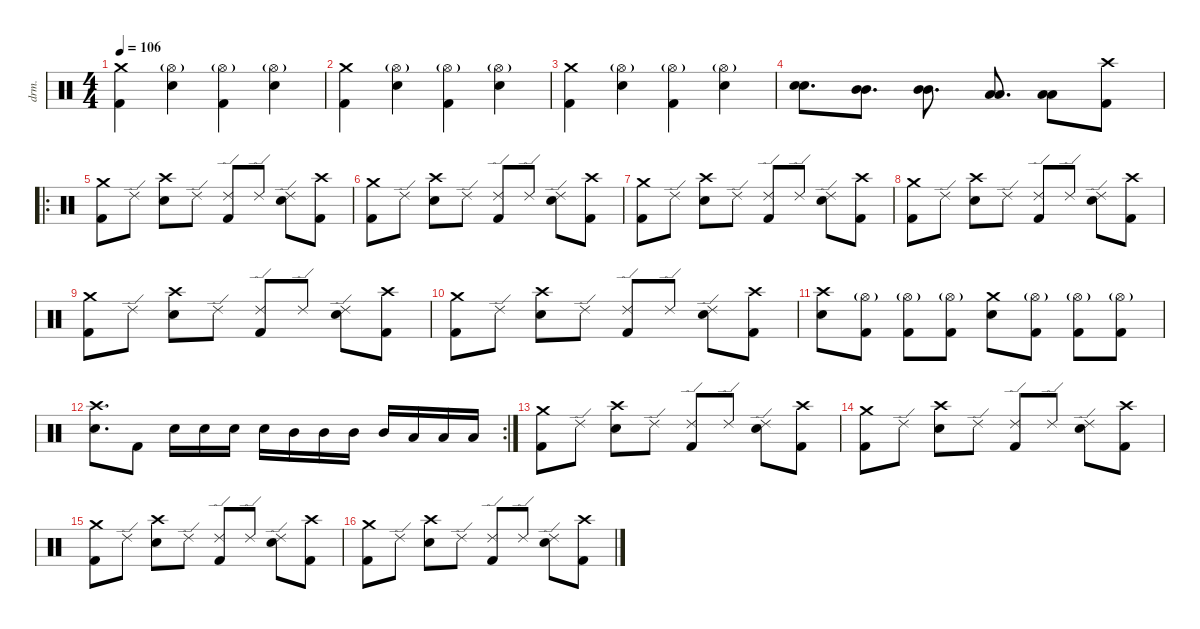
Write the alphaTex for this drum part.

\defaultSystemsLayout 4
\hideDynamics
\bracketExtendMode nobrackets
\track ("Lee Kerslake" "drm.") {solo instrument percussion}
\staff {score}
\articulation defaults
\ts (4 4)
\tempo 106
\clef neutral
\ks c
("Crash medium (hit)" "Kick (hit) 2").4{dy f} ("Hi-Hat (open)"{g} "Snare (hit) 2").4 ("Hi-Hat (open)"{g} "Kick (hit) 2").4 ("Hi-Hat (open)"{g} "Snare (hit) 2").4 |
("Crash medium (hit)" "Kick (hit) 2").4 ("Hi-Hat (open)"{g} "Snare (hit) 2").4 ("Hi-Hat (open)"{g} "Kick (hit) 2").4 ("Hi-Hat (open)"{g} "Snare (hit) 2").4 |
("Crash medium (hit)" "Kick (hit) 2").4 ("Hi-Hat (open)"{g} "Snare (hit) 2").4 ("Hi-Hat (open)"{g} "Kick (hit) 2").4 ("Hi-Hat (open)"{g} "Snare (hit) 2").4 |
("Snare (hit) 2" "Snare (hit) 2").8{d} ("Mid Tom (hit)" "Mid Tom (hit)").8{d} ("Mid Tom (hit)" "Mid Tom (hit)").8{d} ("Low Tom (hit)" "Low Tom (hit)").8{d} ("Low Tom (hit)" "Low Tom (hit)").8 ("Crash high (hit)" "Kick (hit) 2").8 |
\ro
("Crash medium (hit)" "Kick (hit) 2").8 "Ride (edge) 2".8 ("Crash high (hit)" "Snare (hit) 2").8 "Ride (edge) 2".8 ("Ride (edge) 2" "Kick (hit) 2").8 "Ride (edge) 2".8 ("Ride (edge) 2" "Snare (hit) 2").8 ("Crash high (hit)" "Kick (hit) 2").8 |
("Crash medium (hit)" "Kick (hit) 2").8 "Ride (edge) 2".8 ("Crash high (hit)" "Snare (hit) 2").8 "Ride (edge) 2".8 ("Ride (edge) 2" "Kick (hit) 2").8 "Ride (edge) 2".8 ("Ride (edge) 2" "Snare (hit) 2").8 ("Crash high (hit)" "Kick (hit) 2").8 |
("Crash medium (hit)" "Kick (hit) 2").8 "Ride (edge) 2".8 ("Crash high (hit)" "Snare (hit) 2").8 "Ride (edge) 2".8 ("Ride (edge) 2" "Kick (hit) 2").8 "Ride (edge) 2".8 ("Ride (edge) 2" "Snare (hit) 2").8 ("Crash high (hit)" "Kick (hit) 2").8 |
("Crash medium (hit)" "Kick (hit) 2").8 "Ride (edge) 2".8 ("Crash high (hit)" "Snare (hit) 2").8 "Ride (edge) 2".8 ("Ride (edge) 2" "Kick (hit) 2").8 "Ride (edge) 2".8 ("Ride (edge) 2" "Snare (hit) 2").8 ("Crash high (hit)" "Kick (hit) 2").8 |
("Crash medium (hit)" "Kick (hit) 2").8 "Ride (edge) 2".8 ("Crash high (hit)" "Snare (hit) 2").8 "Ride (edge) 2".8 ("Ride (edge) 2" "Kick (hit) 2").8 "Ride (edge) 2".8 ("Ride (edge) 2" "Snare (hit) 2").8 ("Crash high (hit)" "Kick (hit) 2").8 |
("Crash medium (hit)" "Kick (hit) 2").8 "Ride (edge) 2".8 ("Crash high (hit)" "Snare (hit) 2").8 "Ride (edge) 2".8 ("Ride (edge) 2" "Kick (hit) 2").8 "Ride (edge) 2".8 ("Ride (edge) 2" "Snare (hit) 2").8 ("Crash high (hit)" "Kick (hit) 2").8 |
("Crash high (hit)" "Snare (hit) 2").8 ("Hi-Hat (open)"{g} "Kick (hit) 2").8 ("Hi-Hat (open)"{g} "Kick (hit) 2").8 ("Hi-Hat (open)"{g} "Kick (hit) 2").8 ("Crash medium (hit)" "Snare (hit) 2").8 ("Hi-Hat (open)"{g} "Kick (hit) 2").8 ("Hi-Hat (open)"{g} "Kick (hit) 2").8 ("Hi-Hat (open)"{g} "Kick (hit) 2").8 |
\rc 2
("Crash high (hit)" "Snare (hit) 2").8{d} "Kick (hit) 2".8 "Snare (hit) 2".16 "Snare (hit) 2".16 "Snare (hit) 2".16 "Snare (hit) 2".16 "Mid Tom (hit)".16 "Mid Tom (hit)".16 "Mid Tom (hit)".16 "Mid Tom (hit)".16 "Low Tom (hit)".16 "Low Tom (hit)".16 "Low Tom (hit)".16 |
("Crash medium (hit)" "Kick (hit) 2").8 "Ride (edge) 2".8 ("Crash high (hit)" "Snare (hit) 2").8 "Ride (edge) 2".8 ("Ride (edge) 2" "Kick (hit) 2").8 "Ride (edge) 2".8 ("Ride (edge) 2" "Snare (hit) 2").8 ("Crash high (hit)" "Kick (hit) 2").8 |
("Crash medium (hit)" "Kick (hit) 2").8 "Ride (edge) 2".8 ("Crash high (hit)" "Snare (hit) 2").8 "Ride (edge) 2".8 ("Ride (edge) 2" "Kick (hit) 2").8 "Ride (edge) 2".8 ("Ride (edge) 2" "Snare (hit) 2").8 ("Crash high (hit)" "Kick (hit) 2").8 |
("Crash medium (hit)" "Kick (hit) 2").8 "Ride (edge) 2".8 ("Crash high (hit)" "Snare (hit) 2").8 "Ride (edge) 2".8 ("Ride (edge) 2" "Kick (hit) 2").8 "Ride (edge) 2".8 ("Ride (edge) 2" "Snare (hit) 2").8 ("Crash high (hit)" "Kick (hit) 2").8 |
("Crash medium (hit)" "Kick (hit) 2").8 "Ride (edge) 2".8 ("Crash high (hit)" "Snare (hit) 2").8 "Ride (edge) 2".8 ("Ride (edge) 2" "Kick (hit) 2").8 "Ride (edge) 2".8 ("Ride (edge) 2" "Snare (hit) 2").8 ("Crash high (hit)" "Kick (hit) 2").8
